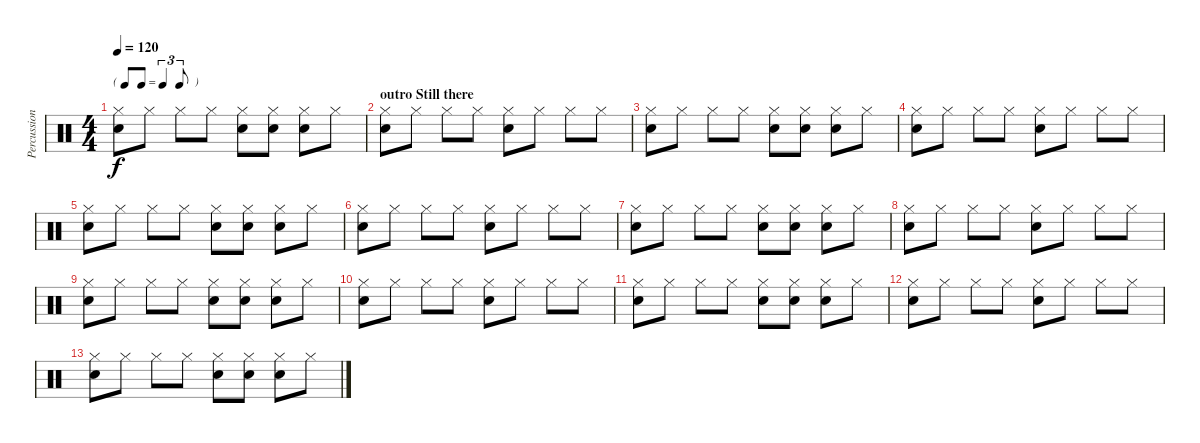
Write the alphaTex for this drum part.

\track ("Percussions" "Percussion") {instrument percussion}
\staff {score}
\articulation defaults
\ts (4 4)
\tf triplet8th
\tempo 120
\clef neutral
\ks c
("Electric Snare (hit)" "Hi-Hat (closed)").8{dy f} "Hi-Hat (closed)".8 "Hi-Hat (closed)".8 "Hi-Hat (closed)".8 ("Electric Snare (hit)" "Hi-Hat (closed)").8 ("Electric Snare (hit)" "Hi-Hat (closed)").8 ("Electric Snare (hit)" "Hi-Hat (closed)").8 "Hi-Hat (closed)".8 |
\section ("" "outro Still there")
("Electric Snare (hit)" "Hi-Hat (closed)").8 "Hi-Hat (closed)".8 "Hi-Hat (closed)".8 "Hi-Hat (closed)".8 ("Electric Snare (hit)" "Hi-Hat (closed)").8 "Hi-Hat (closed)".8 "Hi-Hat (closed)".8 "Hi-Hat (closed)".8 |
("Electric Snare (hit)" "Hi-Hat (closed)").8 "Hi-Hat (closed)".8 "Hi-Hat (closed)".8 "Hi-Hat (closed)".8 ("Electric Snare (hit)" "Hi-Hat (closed)").8 ("Electric Snare (hit)" "Hi-Hat (closed)").8 ("Electric Snare (hit)" "Hi-Hat (closed)").8 "Hi-Hat (closed)".8 |
("Electric Snare (hit)" "Hi-Hat (closed)").8 "Hi-Hat (closed)".8 "Hi-Hat (closed)".8 "Hi-Hat (closed)".8 ("Electric Snare (hit)" "Hi-Hat (closed)").8 "Hi-Hat (closed)".8 "Hi-Hat (closed)".8 "Hi-Hat (closed)".8 |
("Electric Snare (hit)" "Hi-Hat (closed)").8 "Hi-Hat (closed)".8 "Hi-Hat (closed)".8 "Hi-Hat (closed)".8 ("Electric Snare (hit)" "Hi-Hat (closed)").8 ("Electric Snare (hit)" "Hi-Hat (closed)").8 ("Electric Snare (hit)" "Hi-Hat (closed)").8 "Hi-Hat (closed)".8 |
("Electric Snare (hit)" "Hi-Hat (closed)").8 "Hi-Hat (closed)".8 "Hi-Hat (closed)".8 "Hi-Hat (closed)".8 ("Electric Snare (hit)" "Hi-Hat (closed)").8 "Hi-Hat (closed)".8 "Hi-Hat (closed)".8 "Hi-Hat (closed)".8 |
("Electric Snare (hit)" "Hi-Hat (closed)").8 "Hi-Hat (closed)".8 "Hi-Hat (closed)".8 "Hi-Hat (closed)".8 ("Electric Snare (hit)" "Hi-Hat (closed)").8 ("Electric Snare (hit)" "Hi-Hat (closed)").8 ("Electric Snare (hit)" "Hi-Hat (closed)").8 "Hi-Hat (closed)".8 |
("Electric Snare (hit)" "Hi-Hat (closed)").8 "Hi-Hat (closed)".8 "Hi-Hat (closed)".8 "Hi-Hat (closed)".8 ("Electric Snare (hit)" "Hi-Hat (closed)").8 "Hi-Hat (closed)".8 "Hi-Hat (closed)".8 "Hi-Hat (closed)".8 |
("Electric Snare (hit)" "Hi-Hat (closed)").8 "Hi-Hat (closed)".8 "Hi-Hat (closed)".8 "Hi-Hat (closed)".8 ("Electric Snare (hit)" "Hi-Hat (closed)").8 ("Electric Snare (hit)" "Hi-Hat (closed)").8 ("Electric Snare (hit)" "Hi-Hat (closed)").8 "Hi-Hat (closed)".8 |
("Electric Snare (hit)" "Hi-Hat (closed)").8 "Hi-Hat (closed)".8 "Hi-Hat (closed)".8 "Hi-Hat (closed)".8 ("Electric Snare (hit)" "Hi-Hat (closed)").8 "Hi-Hat (closed)".8 "Hi-Hat (closed)".8 "Hi-Hat (closed)".8 |
("Electric Snare (hit)" "Hi-Hat (closed)").8 "Hi-Hat (closed)".8 "Hi-Hat (closed)".8 "Hi-Hat (closed)".8 ("Electric Snare (hit)" "Hi-Hat (closed)").8 ("Electric Snare (hit)" "Hi-Hat (closed)").8 ("Electric Snare (hit)" "Hi-Hat (closed)").8 "Hi-Hat (closed)".8 |
("Electric Snare (hit)" "Hi-Hat (closed)").8 "Hi-Hat (closed)".8 "Hi-Hat (closed)".8 "Hi-Hat (closed)".8 ("Electric Snare (hit)" "Hi-Hat (closed)").8 "Hi-Hat (closed)".8 "Hi-Hat (closed)".8 "Hi-Hat (closed)".8 |
("Electric Snare (hit)" "Hi-Hat (closed)").8 "Hi-Hat (closed)".8 "Hi-Hat (closed)".8 "Hi-Hat (closed)".8 ("Electric Snare (hit)" "Hi-Hat (closed)").8 ("Electric Snare (hit)" "Hi-Hat (closed)").8 ("Electric Snare (hit)" "Hi-Hat (closed)").8 "Hi-Hat (closed)".8
